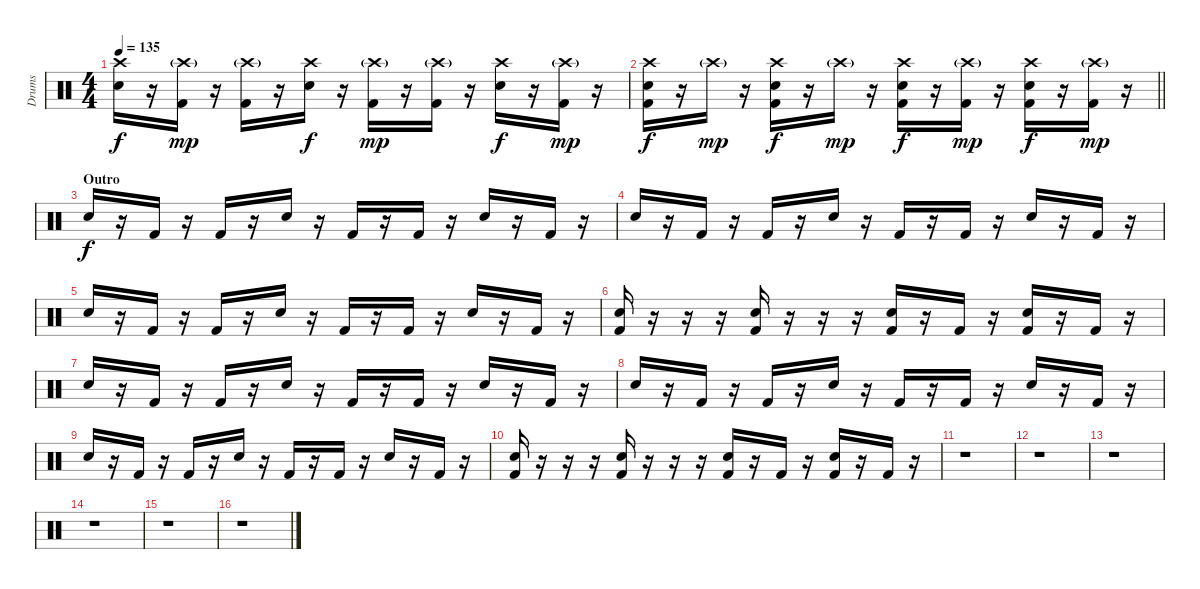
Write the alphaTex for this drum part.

\track ("Drums" "Drums") {instrument percussion}
\staff {score}
\articulation defaults
\ts (4 4)
\tempo 135
\clef neutral
\ks c
("Snare (hit) 2" "Crash high (hit)").16{dy f} r.16 ("Kick (hit) 2" "Crash high (hit)"{g}).16{dy mp} r.16 ("Kick (hit) 2" "Crash high (hit)"{g}).16 r.16 ("Snare (hit) 2" "Crash high (hit)").16{dy f} r.16 ("Kick (hit) 2" "Crash high (hit)"{g}).16{dy mp} r.16 ("Kick (hit) 2" "Crash high (hit)"{g}).16 r.16 ("Snare (hit) 2" "Crash high (hit)").16{dy f} r.16 ("Kick (hit) 2" "Crash high (hit)"{g}).16{dy mp} r.16 |
\barLineRight lightlight
("Kick (hit) 2" "Snare (hit) 2" "Crash high (hit)").16{dy f} r.16 "Crash high (hit)"{g}.16{dy mp} r.16 ("Kick (hit) 2" "Snare (hit) 2" "Crash high (hit)").16{dy f} r.16 "Crash high (hit)"{g}.16{dy mp} r.16 ("Kick (hit) 2" "Snare (hit) 2" "Crash high (hit)").16{dy f} r.16 ("Kick (hit) 2" "Crash high (hit)"{g}).16{dy mp} r.16 ("Kick (hit) 2" "Snare (hit) 2" "Crash high (hit)").16{dy f} r.16 ("Kick (hit) 2" "Crash high (hit)"{g}).16{dy mp} r.16 |
\section ("" "Outro")
"Snare (hit) 2".16{dy f volume 11} r.16 "Kick (hit) 2".16 r.16 "Kick (hit) 2".16 r.16 "Snare (hit) 2".16 r.16 "Kick (hit) 2".16 r.16 "Kick (hit) 2".16 r.16 "Snare (hit) 2".16 r.16 "Kick (hit) 2".16 r.16 |
"Snare (hit) 2".16 r.16 "Kick (hit) 2".16 r.16 "Kick (hit) 2".16 r.16 "Snare (hit) 2".16 r.16 "Kick (hit) 2".16 r.16 "Kick (hit) 2".16 r.16 "Snare (hit) 2".16 r.16 "Kick (hit) 2".16 r.16 |
"Snare (hit) 2".16 r.16 "Kick (hit) 2".16 r.16 "Kick (hit) 2".16 r.16 "Snare (hit) 2".16 r.16 "Kick (hit) 2".16 r.16 "Kick (hit) 2".16 r.16 "Snare (hit) 2".16 r.16 "Kick (hit) 2".16 r.16 |
("Kick (hit) 2" "Snare (hit) 2").16 r.16 r.16 r.16 ("Kick (hit) 2" "Snare (hit) 2").16 r.16 r.16 r.16 ("Kick (hit) 2" "Snare (hit) 2").16 r.16 "Kick (hit) 2".16 r.16 ("Kick (hit) 2" "Snare (hit) 2").16 r.16 "Kick (hit) 2".16 r.16 |
"Snare (hit) 2".16 r.16 "Kick (hit) 2".16 r.16 "Kick (hit) 2".16 r.16 "Snare (hit) 2".16 r.16 "Kick (hit) 2".16 r.16 "Kick (hit) 2".16 r.16 "Snare (hit) 2".16 r.16 "Kick (hit) 2".16 r.16 |
"Snare (hit) 2".16 r.16 "Kick (hit) 2".16 r.16 "Kick (hit) 2".16 r.16 "Snare (hit) 2".16 r.16 "Kick (hit) 2".16 r.16 "Kick (hit) 2".16 r.16 "Snare (hit) 2".16 r.16 "Kick (hit) 2".16 r.16 |
"Snare (hit) 2".16 r.16 "Kick (hit) 2".16 r.16 "Kick (hit) 2".16 r.16 "Snare (hit) 2".16 r.16 "Kick (hit) 2".16 r.16 "Kick (hit) 2".16 r.16 "Snare (hit) 2".16 r.16 "Kick (hit) 2".16 r.16 |
("Kick (hit) 2" "Snare (hit) 2").16 r.16 r.16 r.16 ("Kick (hit) 2" "Snare (hit) 2").16 r.16 r.16 r.16 ("Kick (hit) 2" "Snare (hit) 2").16 r.16 "Kick (hit) 2".16 r.16 ("Kick (hit) 2" "Snare (hit) 2").16 r.16 "Kick (hit) 2".16 r.16 |
r.1 |
r.1 |
r.1 |
r.1 |
r.1 |
r.1
